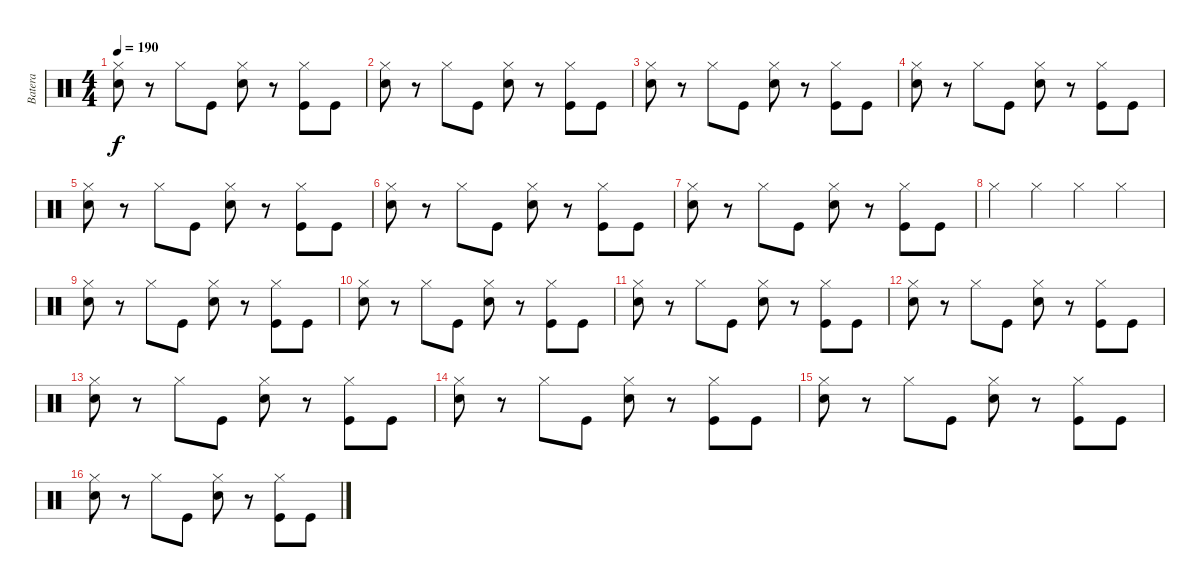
\track ("Batera" "Batera") {instrument percussion}
\staff {score}
\articulation defaults
\ts (4 4)
\tempo 190
\clef neutral
\ks c
("Hi-Hat (closed)" "Snare (hit) 2").8{dy f} r.8 "Hi-Hat (closed)".8 "Kick (hit)".8 ("Hi-Hat (closed)" "Snare (hit) 2").8 r.8 ("Hi-Hat (closed)" "Kick (hit)").8 "Kick (hit)".8 |
("Hi-Hat (closed)" "Snare (hit) 2").8 r.8 "Hi-Hat (closed)".8 "Kick (hit)".8 ("Hi-Hat (closed)" "Snare (hit) 2").8 r.8 ("Hi-Hat (closed)" "Kick (hit)").8 "Kick (hit)".8 |
("Hi-Hat (closed)" "Snare (hit) 2").8 r.8 "Hi-Hat (closed)".8 "Kick (hit)".8 ("Hi-Hat (closed)" "Snare (hit) 2").8 r.8 ("Hi-Hat (closed)" "Kick (hit)").8 "Kick (hit)".8 |
("Hi-Hat (closed)" "Snare (hit) 2").8 r.8 "Hi-Hat (closed)".8 "Kick (hit)".8 ("Hi-Hat (closed)" "Snare (hit) 2").8 r.8 ("Hi-Hat (closed)" "Kick (hit)").8 "Kick (hit)".8 |
("Hi-Hat (closed)" "Snare (hit) 2").8 r.8 "Hi-Hat (closed)".8 "Kick (hit)".8 ("Hi-Hat (closed)" "Snare (hit) 2").8 r.8 ("Hi-Hat (closed)" "Kick (hit)").8 "Kick (hit)".8 |
("Hi-Hat (closed)" "Snare (hit) 2").8 r.8 "Hi-Hat (closed)".8 "Kick (hit)".8 ("Hi-Hat (closed)" "Snare (hit) 2").8 r.8 ("Hi-Hat (closed)" "Kick (hit)").8 "Kick (hit)".8 |
("Hi-Hat (closed)" "Snare (hit) 2").8 r.8 "Hi-Hat (closed)".8 "Kick (hit)".8 ("Hi-Hat (closed)" "Snare (hit) 2").8 r.8 ("Hi-Hat (closed)" "Kick (hit)").8 "Kick (hit)".8 |
"Hi-Hat (closed)".4 "Hi-Hat (closed)".4 "Hi-Hat (closed)".4 "Hi-Hat (closed)".4 |
("Hi-Hat (closed)" "Snare (hit) 2").8 r.8 "Hi-Hat (closed)".8 "Kick (hit)".8 ("Hi-Hat (closed)" "Snare (hit) 2").8 r.8 ("Hi-Hat (closed)" "Kick (hit)").8 "Kick (hit)".8 |
("Hi-Hat (closed)" "Snare (hit) 2").8 r.8 "Hi-Hat (closed)".8 "Kick (hit)".8 ("Hi-Hat (closed)" "Snare (hit) 2").8 r.8 ("Hi-Hat (closed)" "Kick (hit)").8 "Kick (hit)".8 |
("Hi-Hat (closed)" "Snare (hit) 2").8 r.8 "Hi-Hat (closed)".8 "Kick (hit)".8 ("Hi-Hat (closed)" "Snare (hit) 2").8 r.8 ("Hi-Hat (closed)" "Kick (hit)").8 "Kick (hit)".8 |
("Hi-Hat (closed)" "Snare (hit) 2").8 r.8 "Hi-Hat (closed)".8 "Kick (hit)".8 ("Hi-Hat (closed)" "Snare (hit) 2").8 r.8 ("Hi-Hat (closed)" "Kick (hit)").8 "Kick (hit)".8 |
("Hi-Hat (closed)" "Snare (hit) 2").8 r.8 "Hi-Hat (closed)".8 "Kick (hit)".8 ("Hi-Hat (closed)" "Snare (hit) 2").8 r.8 ("Hi-Hat (closed)" "Kick (hit)").8 "Kick (hit)".8 |
("Hi-Hat (closed)" "Snare (hit) 2").8 r.8 "Hi-Hat (closed)".8 "Kick (hit)".8 ("Hi-Hat (closed)" "Snare (hit) 2").8 r.8 ("Hi-Hat (closed)" "Kick (hit)").8 "Kick (hit)".8 |
("Hi-Hat (closed)" "Snare (hit) 2").8 r.8 "Hi-Hat (closed)".8 "Kick (hit)".8 ("Hi-Hat (closed)" "Snare (hit) 2").8 r.8 ("Hi-Hat (closed)" "Kick (hit)").8 "Kick (hit)".8 |
("Hi-Hat (closed)" "Snare (hit) 2").8 r.8 "Hi-Hat (closed)".8 "Kick (hit)".8 ("Hi-Hat (closed)" "Snare (hit) 2").8 r.8 ("Hi-Hat (closed)" "Kick (hit)").8 "Kick (hit)".8
